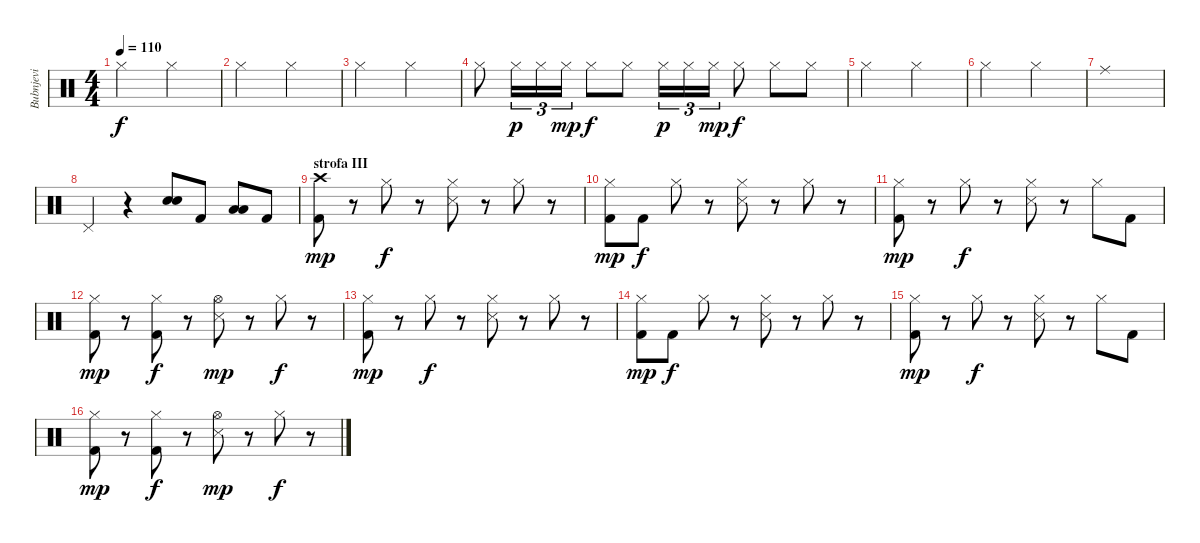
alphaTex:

\track ("Bubnjevi" "Bubnjevi") {instrument percussion}
\staff {score}
\articulation defaults
\ts (4 4)
\tempo 110
\clef neutral
\ks c "Hi-Hat (closed)".2{dy f} "Hi-Hat (closed)".2
|
"Hi-Hat (closed)".2 "Hi-Hat (closed)".2 |
"Hi-Hat (closed)".2 "Hi-Hat (closed)".2 |
"Hi-Hat (closed)".8 "Hi-Hat (closed)".16{tu (3 2) dy p} "Hi-Hat (closed)".16{tu (3 2)} "Hi-Hat (closed)".16{tu (3 2) dy mp} "Hi-Hat (closed)".8{dy f} "Hi-Hat (closed)".8 "Hi-Hat (closed)".16{tu (3 2) dy p} "Hi-Hat (closed)".16{tu (3 2)} "Hi-Hat (closed)".16{tu (3 2) dy mp} "Hi-Hat (closed)".8{dy f} "Hi-Hat (closed)".8 "Hi-Hat (closed)".8 |
"Hi-Hat (closed)".2 "Hi-Hat (closed)".2 |
"Hi-Hat (closed)".2 "Hi-Hat (closed)".2 |
"Ride (middle)".1 |
"Pedal Hi-Hat (hit)".4 r.4 ("Electric Snare (hit)" "Electric Snare (hit)").8{bd 120} "Kick (hit) 2".8 ("Low Tom (hit)" "Low Tom (hit)").8{bd 120} "Kick (hit) 2".8 |
\section ("" "strofa III")
("Crash high (hit)" "Kick (hit) 2").8{dy mp} r.8 "Hi-Hat (closed)".8{dy f} r.8 ("Hi-Hat (closed)" "Snare (side stick) 3").8 r.8 "Hi-Hat (closed)".8 r.8 |
("Hi-Hat (closed)" "Kick (hit) 2").8{dy mp} "Kick (hit) 2".8{dy f} "Hi-Hat (closed)".8 r.8 ("Hi-Hat (closed)" "Snare (side stick) 3").8 r.8 "Hi-Hat (closed)".8 r.8 |
("Hi-Hat (closed)" "Kick (hit) 2").8{dy mp} r.8 "Hi-Hat (closed)".8{dy f} r.8 ("Hi-Hat (closed)" "Snare (side stick) 3").8 r.8 "Hi-Hat (closed)".8 "Kick (hit) 2".8 |
("Hi-Hat (closed)" "Kick (hit) 2").8{dy mp} r.8 ("Hi-Hat (closed)" "Kick (hit) 2").8{dy f} r.8 ("Hi-Hat (open)" "Snare (side stick) 3").8{dy mp} r.8 "Hi-Hat (closed)".8{dy f} r.8 |
("Hi-Hat (closed)" "Kick (hit) 2").8{dy mp} r.8 "Hi-Hat (closed)".8{dy f} r.8 ("Hi-Hat (closed)" "Snare (side stick) 3").8 r.8 "Hi-Hat (closed)".8 r.8 |
("Hi-Hat (closed)" "Kick (hit) 2").8{dy mp} "Kick (hit) 2".8{dy f} "Hi-Hat (closed)".8 r.8 ("Hi-Hat (closed)" "Snare (side stick) 3").8 r.8 "Hi-Hat (closed)".8 r.8 |
("Hi-Hat (closed)" "Kick (hit) 2").8{dy mp} r.8 "Hi-Hat (closed)".8{dy f} r.8 ("Hi-Hat (closed)" "Snare (side stick) 3").8 r.8 "Hi-Hat (closed)".8 "Kick (hit) 2".8 |
("Hi-Hat (closed)" "Kick (hit) 2").8{dy mp} r.8 ("Hi-Hat (closed)" "Kick (hit) 2").8{dy f} r.8 ("Hi-Hat (open)" "Snare (side stick) 3").8{dy mp} r.8 "Hi-Hat (closed)".8{dy f} r.8
